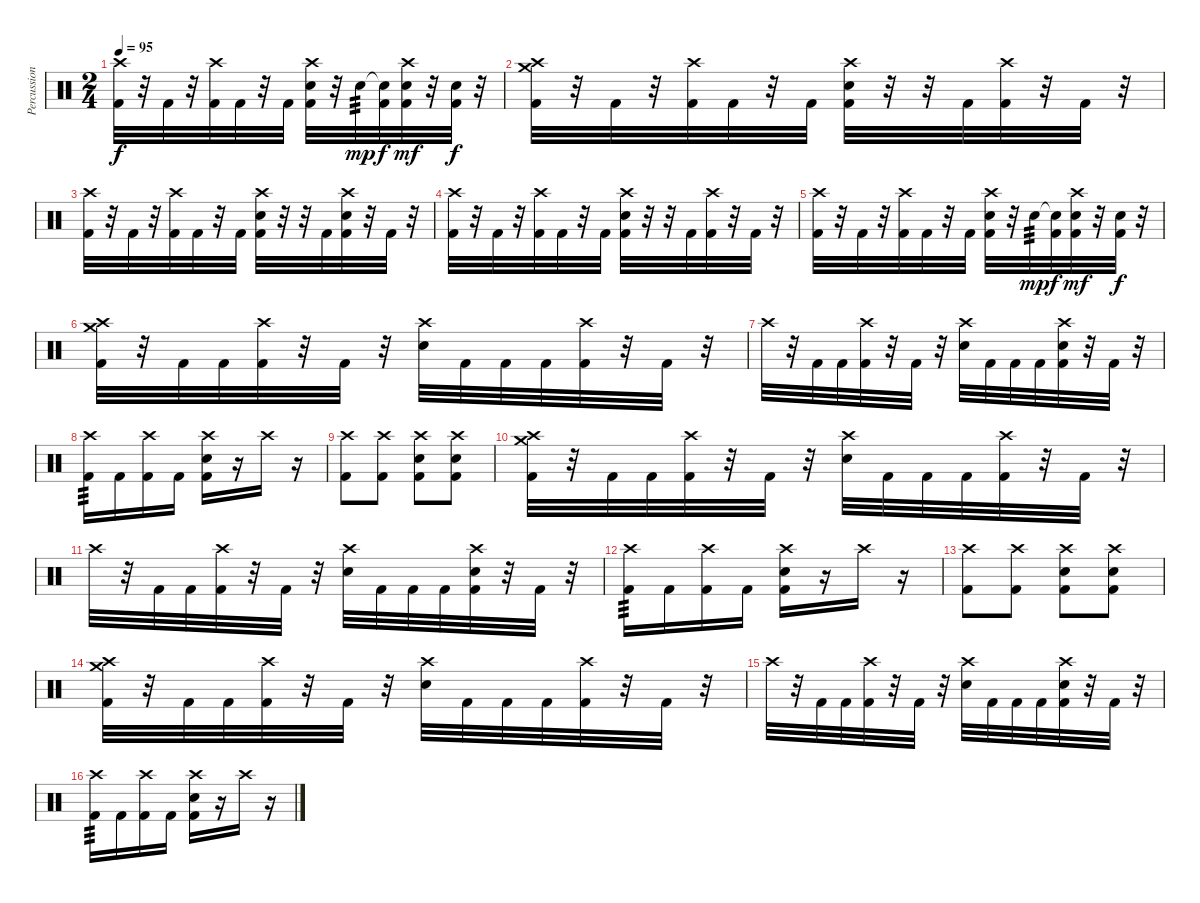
\track ("Percussion" "Percussion") {instrument percussion}
\staff {score}
\articulation defaults
\ts (2 4)
\tempo 95
\clef neutral
\ks c
("Crash high (hit)" "Kick (hit) 2").32{dy f} r.32 "Kick (hit) 2".32 r.32 ("Crash high (hit)" "Kick (hit) 2").32 "Kick (hit) 2".32 r.32 "Kick (hit) 2".32 ("Crash high (hit)" "Electric Snare (hit)" "Kick (hit) 2").32 r.32 "Electric Snare (hit)".32{tp 3 dy mp} ("Snare (hit)"{t} "Kick (hit) 2").32{dy f} ("Crash high (hit)" "Electric Snare (hit)" "Kick (hit) 2").32{dy mf} r.32 ("Electric Snare (hit)" "Kick (hit) 2").32{dy f} r.32 |
("Crash medium (hit)" "Crash high (hit)" "Kick (hit) 2").32 r.32 "Kick (hit) 2".32 r.32 ("Crash high (hit)" "Kick (hit) 2").32 "Kick (hit) 2".32 r.32 "Kick (hit) 2".32 ("Crash high (hit)" "Electric Snare (hit)" "Kick (hit) 2").32 r.32 r.32 "Kick (hit) 2".32 ("Crash high (hit)" "Kick (hit) 2").32 r.32 "Kick (hit) 2".32 r.32 |
("Crash high (hit)" "Kick (hit) 2").32 r.32 "Kick (hit) 2".32 r.32 ("Crash high (hit)" "Kick (hit) 2").32 "Kick (hit) 2".32 r.32 "Kick (hit) 2".32 ("Crash high (hit)" "Electric Snare (hit)" "Kick (hit) 2").32 r.32 r.32 "Kick (hit) 2".32 ("Crash high (hit)" "Electric Snare (hit)" "Kick (hit) 2").32 r.32 "Kick (hit) 2".32 r.32 |
("Crash high (hit)" "Kick (hit) 2").32 r.32 "Kick (hit) 2".32 r.32 ("Crash high (hit)" "Kick (hit) 2").32 "Kick (hit) 2".32 r.32 "Kick (hit) 2".32 ("Crash high (hit)" "Electric Snare (hit)" "Kick (hit) 2").32 r.32 r.32 "Kick (hit) 2".32 ("Crash high (hit)" "Kick (hit) 2").32 r.32 "Kick (hit) 2".32 r.32 |
("Crash high (hit)" "Kick (hit) 2").32 r.32 "Kick (hit) 2".32 r.32 ("Crash high (hit)" "Kick (hit) 2").32 "Kick (hit) 2".32 r.32 "Kick (hit) 2".32 ("Crash high (hit)" "Electric Snare (hit)" "Kick (hit) 2").32 r.32 "Electric Snare (hit)".32{tp 3 dy mp} ("Snare (hit)"{t} "Kick (hit) 2").32{dy f} ("Crash high (hit)" "Electric Snare (hit)" "Kick (hit) 2").32{dy mf} r.32 ("Electric Snare (hit)" "Kick (hit) 2").32{dy f} r.32 |
("Crash medium (hit)" "Crash high (hit)" "Kick (hit) 2").32 r.32 "Kick (hit) 2".32 "Kick (hit) 2".32 ("Crash high (hit)" "Kick (hit) 2").32 r.32 "Kick (hit) 2".32 r.32 ("Crash high (hit)" "Electric Snare (hit)").32 "Kick (hit) 2".32 "Kick (hit) 2".32 "Kick (hit) 2".32 ("Crash high (hit)" "Kick (hit) 2").32 r.32 "Kick (hit) 2".32 r.32 |
"Crash high (hit)".32 r.32 "Kick (hit) 2".32 "Kick (hit) 2".32 ("Crash high (hit)" "Kick (hit) 2").32 r.32 "Kick (hit) 2".32 r.32 ("Crash high (hit)" "Electric Snare (hit)").32 "Kick (hit) 2".32 "Kick (hit) 2".32 "Kick (hit) 2".32 ("Crash high (hit)" "Electric Snare (hit)" "Kick (hit) 2").32 r.32 "Kick (hit) 2".32 r.32 |
("Crash high (hit)" "Kick (hit) 2").16{tp 3} "Kick (hit) 2".16 ("Crash high (hit)" "Kick (hit) 2").16 "Kick (hit) 2".16 ("Crash high (hit)" "Electric Snare (hit)" "Kick (hit) 2").16 r.16 "Crash high (hit)".16 r.16 |
("Crash high (hit)" "Kick (hit) 2").8 ("Crash high (hit)" "Kick (hit) 2").8 ("Crash high (hit)" "Electric Snare (hit)" "Kick (hit) 2").8 ("Crash high (hit)" "Electric Snare (hit)" "Kick (hit) 2").8 |
("Crash medium (hit)" "Crash high (hit)" "Kick (hit) 2").32 r.32 "Kick (hit) 2".32 "Kick (hit) 2".32 ("Crash high (hit)" "Kick (hit) 2").32 r.32 "Kick (hit) 2".32 r.32 ("Crash high (hit)" "Electric Snare (hit)").32 "Kick (hit) 2".32 "Kick (hit) 2".32 "Kick (hit) 2".32 ("Crash high (hit)" "Kick (hit) 2").32 r.32 "Kick (hit) 2".32 r.32 |
"Crash high (hit)".32 r.32 "Kick (hit) 2".32 "Kick (hit) 2".32 ("Crash high (hit)" "Kick (hit) 2").32 r.32 "Kick (hit) 2".32 r.32 ("Crash high (hit)" "Electric Snare (hit)").32 "Kick (hit) 2".32 "Kick (hit) 2".32 "Kick (hit) 2".32 ("Crash high (hit)" "Electric Snare (hit)" "Kick (hit) 2").32 r.32 "Kick (hit) 2".32 r.32 |
("Crash high (hit)" "Kick (hit) 2").16{tp 3} "Kick (hit) 2".16 ("Crash high (hit)" "Kick (hit) 2").16 "Kick (hit) 2".16 ("Crash high (hit)" "Electric Snare (hit)" "Kick (hit) 2").16 r.16 "Crash high (hit)".16 r.16 |
("Crash high (hit)" "Kick (hit) 2").8 ("Crash high (hit)" "Kick (hit) 2").8 ("Crash high (hit)" "Electric Snare (hit)" "Kick (hit) 2").8 ("Crash high (hit)" "Electric Snare (hit)" "Kick (hit) 2").8 |
("Crash medium (hit)" "Crash high (hit)" "Kick (hit) 2").32 r.32 "Kick (hit) 2".32 "Kick (hit) 2".32 ("Crash high (hit)" "Kick (hit) 2").32 r.32 "Kick (hit) 2".32 r.32 ("Crash high (hit)" "Electric Snare (hit)").32 "Kick (hit) 2".32 "Kick (hit) 2".32 "Kick (hit) 2".32 ("Crash high (hit)" "Kick (hit) 2").32 r.32 "Kick (hit) 2".32 r.32 |
"Crash high (hit)".32 r.32 "Kick (hit) 2".32 "Kick (hit) 2".32 ("Crash high (hit)" "Kick (hit) 2").32 r.32 "Kick (hit) 2".32 r.32 ("Crash high (hit)" "Electric Snare (hit)").32 "Kick (hit) 2".32 "Kick (hit) 2".32 "Kick (hit) 2".32 ("Crash high (hit)" "Electric Snare (hit)" "Kick (hit) 2").32 r.32 "Kick (hit) 2".32 r.32 |
("Crash high (hit)" "Kick (hit) 2").16{tp 3} "Kick (hit) 2".16 ("Crash high (hit)" "Kick (hit) 2").16 "Kick (hit) 2".16 ("Crash high (hit)" "Electric Snare (hit)" "Kick (hit) 2").16 r.16 "Crash high (hit)".16 r.16
